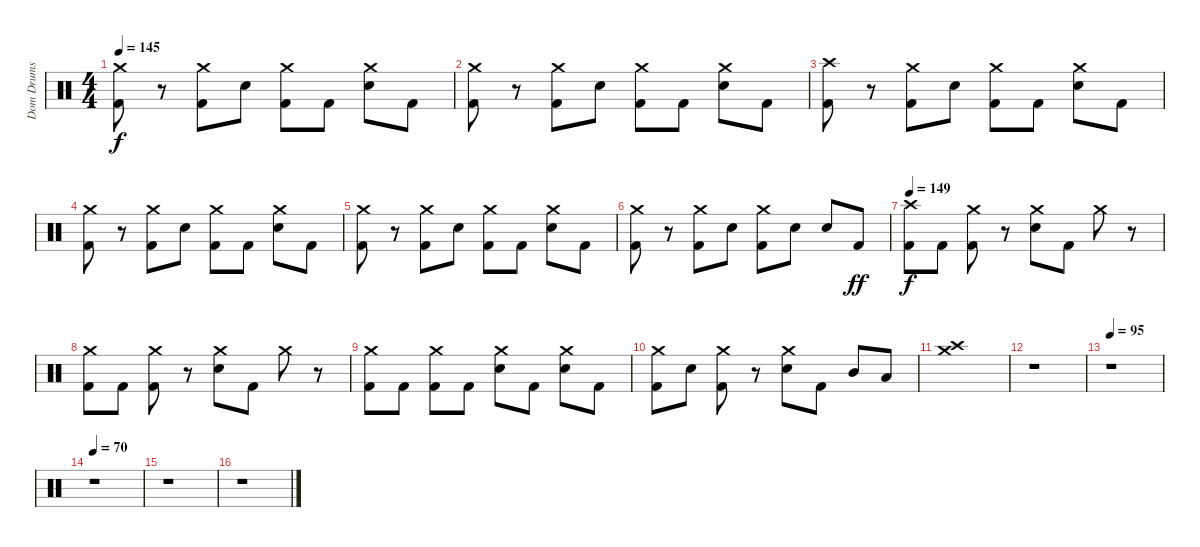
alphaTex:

\track ("Dom Drums" "Dom Drums") {instrument percussion}
\staff {score}
\articulation defaults
\ts (4 4)
\tempo 145
\clef neutral
\ks c
("Crash medium (hit)" "Kick (hit) 2").8{dy f} r.8 ("Crash medium (hit)" "Kick (hit) 2").8 "Snare (hit) 2".8 ("Crash medium (hit)" "Kick (hit) 2").8 "Kick (hit) 2".8 ("Crash medium (hit)" "Snare (hit) 2").8 "Kick (hit) 2".8 |
("Crash medium (hit)" "Kick (hit) 2").8 r.8 ("Crash medium (hit)" "Kick (hit) 2").8 "Snare (hit) 2".8 ("Crash medium (hit)" "Kick (hit) 2").8 "Kick (hit) 2".8 ("Crash medium (hit)" "Snare (hit) 2").8 "Kick (hit) 2".8 |
("Crash high (hit)" "Kick (hit) 2").8 r.8 ("Crash medium (hit)" "Kick (hit) 2").8 "Snare (hit) 2".8 ("Crash medium (hit)" "Kick (hit) 2").8 "Kick (hit) 2".8 ("Crash medium (hit)" "Snare (hit) 2").8 "Kick (hit) 2".8 |
("Crash medium (hit)" "Kick (hit) 2").8 r.8 ("Crash medium (hit)" "Kick (hit) 2").8 "Snare (hit) 2".8 ("Crash medium (hit)" "Kick (hit) 2").8 "Kick (hit) 2".8 ("Crash medium (hit)" "Snare (hit) 2").8 "Kick (hit) 2".8 |
("Crash medium (hit)" "Kick (hit) 2").8 r.8 ("Crash medium (hit)" "Kick (hit) 2").8 "Snare (hit) 2".8 ("Crash medium (hit)" "Kick (hit) 2").8 "Kick (hit) 2".8 ("Crash medium (hit)" "Snare (hit) 2").8 "Kick (hit) 2".8 |
("Crash medium (hit)" "Kick (hit) 2").8 r.8 ("Crash medium (hit)" "Kick (hit) 2").8 "Snare (hit) 2".8 ("Crash medium (hit)" "Kick (hit) 2").8 "Snare (hit) 2".8 "Snare (hit) 2".8 "Kick (hit) 2".8{dy ff} |
\tempo 149
("Crash high (hit)" "Kick (hit) 2").8{dy f} "Kick (hit) 2".8 ("Crash medium (hit)" "Kick (hit) 2").8 r.8 ("Crash medium (hit)" "Snare (hit) 2").8 "Kick (hit) 2".8 "Crash medium (hit)".8 r.8 |
("Crash medium (hit)" "Kick (hit) 2").8 "Kick (hit) 2".8 ("Crash medium (hit)" "Kick (hit) 2").8 r.8 ("Crash medium (hit)" "Snare (hit) 2").8 "Kick (hit) 2".8 "Crash medium (hit)".8 r.8 |
("Crash medium (hit)" "Kick (hit) 2").8 "Kick (hit) 2".8 ("Crash medium (hit)" "Kick (hit) 2").8 "Kick (hit) 2".8 ("Crash medium (hit)" "Snare (hit) 2").8 "Kick (hit) 2".8 ("Crash medium (hit)" "Snare (hit) 2").8 "Kick (hit) 2".8 |
("Crash medium (hit)" "Kick (hit) 2").8 "Snare (hit) 2".8 ("Crash medium (hit)" "Kick (hit) 2").8 r.8 ("Crash medium (hit)" "Snare (hit) 2").8 "Kick (hit) 2".8 "Mid Tom (hit)".8 "Low Tom (hit)".8 |
("Crash high (hit)" "Crash medium (hit)").1 |
r.1 |
\tempo 95
r.1 |
\tempo 70
r.1 |
r.1 |
r.1
